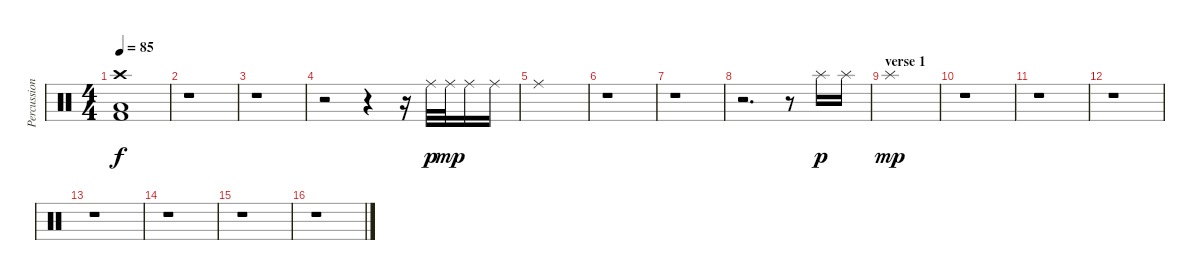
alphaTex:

\track ("Percussion" "Percussion") {instrument percussion}
\staff {score}
\articulation defaults
\ts (4 4)
\section ("" "")
\tempo 85
\clef neutral
\ks c
("Crash high (hit)" "Low Floor Tom (hit)" "Kick (hit) 2").1{dy f} |
r.1 |
r.1 |
r.2 r.4 r.16 "Ride (middle)".32{dy p} "Ride (middle)".32{dy mp} "Ride (middle)".16 "Ride (middle)".16 |
"Ride (middle)".1 |
r.1 |
r.1 |
r.2{d} r.8 "Splash (hit)".16{dy p} "Splash (hit)".16 |
\section ("" "verse 1")
"Splash (hit)".1{dy mp} |
r.1 |
r.1 |
r.1 |
r.1 |
r.1 |
r.1 |
r.1
